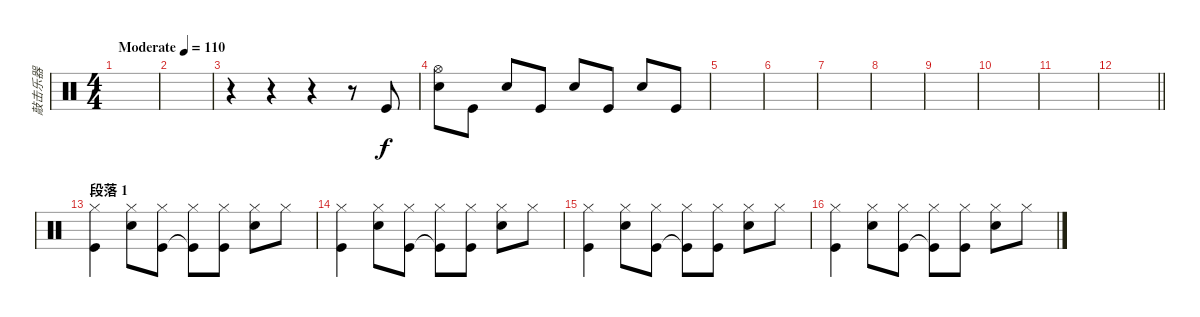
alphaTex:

\track ("敲击乐器" "敲击乐器") {instrument percussion}
\staff {score}
\articulation defaults
\ts (4 4)
\tempo (110 "Moderate")
\clef neutral
\ks c
|
|
r.4 r.4 r.4 r.8 "Kick (hit)".8 |
("Hi-Hat (open)" "Snare (hit) 2").8 "Kick (hit)".8 "Snare (hit) 2".8 "Kick (hit)".8 "Snare (hit) 2".8 "Kick (hit)".8 "Snare (hit) 2".8 "Kick (hit)".8 |
|
|
|
|
|
|
|
\barLineRight lightlight
|
\section ("" "段落 1")
("Hi-Hat (closed)" "Kick (hit)").4 ("Hi-Hat (closed)" "Snare (hit) 2").8 ("Hi-Hat (closed)" "Kick (hit)").8 ("Hi-Hat (closed)" "Kick (hit)"{t}).8 ("Kick (hit)" "Hi-Hat (closed)").8 ("Snare (hit) 2" "Hi-Hat (closed)").8 "Hi-Hat (closed)".8 |
("Hi-Hat (closed)" "Kick (hit)").4 ("Hi-Hat (closed)" "Snare (hit) 2").8 ("Hi-Hat (closed)" "Kick (hit)").8 ("Hi-Hat (closed)" "Kick (hit)"{t}).8 ("Kick (hit)" "Hi-Hat (closed)").8 ("Snare (hit) 2" "Hi-Hat (closed)").8 "Hi-Hat (closed)".8 |
("Hi-Hat (closed)" "Kick (hit)").4 ("Hi-Hat (closed)" "Snare (hit) 2").8 ("Hi-Hat (closed)" "Kick (hit)").8 ("Hi-Hat (closed)" "Kick (hit)"{t}).8 ("Kick (hit)" "Hi-Hat (closed)").8 ("Snare (hit) 2" "Hi-Hat (closed)").8 "Hi-Hat (closed)".8 |
("Hi-Hat (closed)" "Kick (hit)").4 ("Hi-Hat (closed)" "Snare (hit) 2").8 ("Hi-Hat (closed)" "Kick (hit)").8 ("Hi-Hat (closed)" "Kick (hit)"{t}).8 ("Kick (hit)" "Hi-Hat (closed)").8 ("Snare (hit) 2" "Hi-Hat (closed)").8 "Hi-Hat (closed)".8
